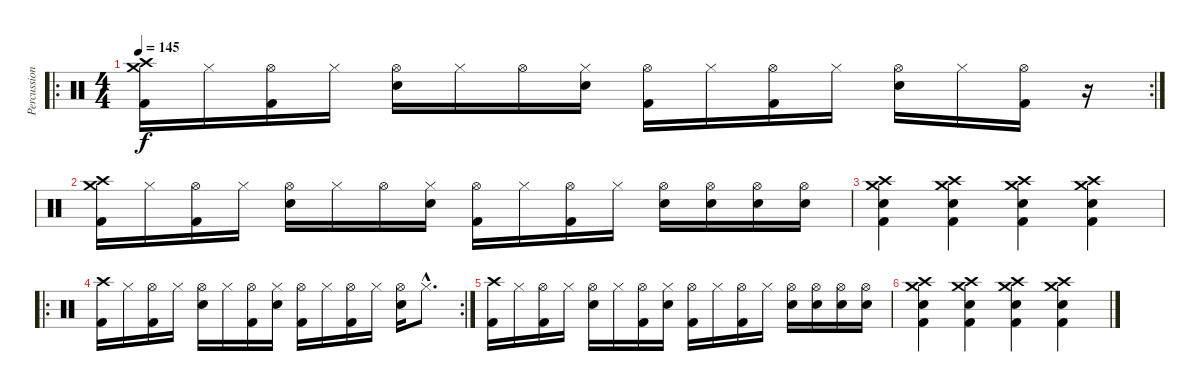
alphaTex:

\track ("Percussion" "Percussion") {instrument percussion}
\staff {score}
\articulation defaults
\ro
\rc 2
\ts (4 4)
\tempo 145
\clef neutral
\ks c
("Crash high (hit)" "Crash medium (hit)" "Kick (hit) 2").16{dy f volume 16} "Hi-Hat (closed)".16 ("Hi-Hat (open)" "Kick (hit) 2").16 "Hi-Hat (closed)".16 ("Hi-Hat (open)" "Electric Snare (hit)").16 "Hi-Hat (closed)".16 "Hi-Hat (open)".16 ("Hi-Hat (closed)" "Electric Snare (hit)").16 ("Hi-Hat (open)" "Kick (hit) 2").16 "Hi-Hat (closed)".16 ("Hi-Hat (open)" "Kick (hit) 2").16 "Hi-Hat (closed)".16 ("Hi-Hat (open)" "Electric Snare (hit)").16 "Hi-Hat (closed)".16 ("Hi-Hat (open)" "Kick (hit) 2").16 r.16 |
("Crash high (hit)" "Crash medium (hit)" "Kick (hit) 2").16 "Hi-Hat (closed)".16 ("Hi-Hat (open)" "Kick (hit) 2").16 "Hi-Hat (closed)".16 ("Hi-Hat (open)" "Electric Snare (hit)").16 "Hi-Hat (closed)".16 "Hi-Hat (open)".16 ("Hi-Hat (closed)" "Electric Snare (hit)").16 ("Hi-Hat (open)" "Kick (hit) 2").16 "Hi-Hat (closed)".16 ("Hi-Hat (open)" "Kick (hit) 2").16 "Hi-Hat (closed)".16 ("Hi-Hat (open)" "Electric Snare (hit)").16 ("Hi-Hat (open)" "Electric Snare (hit)").16 ("Hi-Hat (open)" "Electric Snare (hit)").16 ("Hi-Hat (open)" "Electric Snare (hit)").16 |
("Crash high (hit)" "Crash medium (hit)" "Electric Snare (hit)" "Kick (hit) 2").4 ("Crash high (hit)" "Crash medium (hit)" "Electric Snare (hit)" "Kick (hit) 2").4 ("Crash high (hit)" "Crash medium (hit)" "Electric Snare (hit)" "Kick (hit) 2").4 ("Crash high (hit)" "Crash medium (hit)" "Electric Snare (hit)" "Kick (hit) 2").4 |
\ro
\rc 2
("Crash high (hit)" "Kick (hit) 2").16 "Hi-Hat (closed)".16 ("Hi-Hat (open)" "Kick (hit) 2").16 "Hi-Hat (closed)".16 ("Hi-Hat (open)" "Electric Snare (hit)").16 "Hi-Hat (closed)".16 ("Hi-Hat (open)" "Kick (hit) 2").16 ("Hi-Hat (closed)" "Electric Snare (hit)").16 ("Hi-Hat (open)" "Kick (hit) 2").16 "Hi-Hat (closed)".16 ("Hi-Hat (open)" "Kick (hit) 2").16 "Hi-Hat (closed)".16 ("Hi-Hat (open)" "Electric Snare (hit)").16 "Hi-Hat (closed)"{hac}.8{d} |
("Crash high (hit)" "Kick (hit) 2").16 "Hi-Hat (closed)".16 ("Hi-Hat (open)" "Kick (hit) 2").16 "Hi-Hat (closed)".16 ("Hi-Hat (open)" "Electric Snare (hit)").16 "Hi-Hat (closed)".16 ("Hi-Hat (open)" "Kick (hit) 2").16 ("Hi-Hat (closed)" "Electric Snare (hit)").16 ("Hi-Hat (open)" "Kick (hit) 2").16 "Hi-Hat (closed)".16 ("Hi-Hat (open)" "Kick (hit) 2").16 "Hi-Hat (closed)".16 ("Hi-Hat (open)" "Electric Snare (hit)").16 ("Hi-Hat (open)" "Electric Snare (hit)").16 ("Hi-Hat (open)" "Electric Snare (hit)").16 ("Hi-Hat (open)" "Electric Snare (hit)").16 |
("Crash high (hit)" "Crash medium (hit)" "Electric Snare (hit)" "Kick (hit) 2").4 ("Crash high (hit)" "Crash medium (hit)" "Electric Snare (hit)" "Kick (hit) 2").4 ("Crash high (hit)" "Crash medium (hit)" "Electric Snare (hit)" "Kick (hit) 2").4 ("Crash high (hit)" "Crash medium (hit)" "Electric Snare (hit)" "Kick (hit) 2").4
